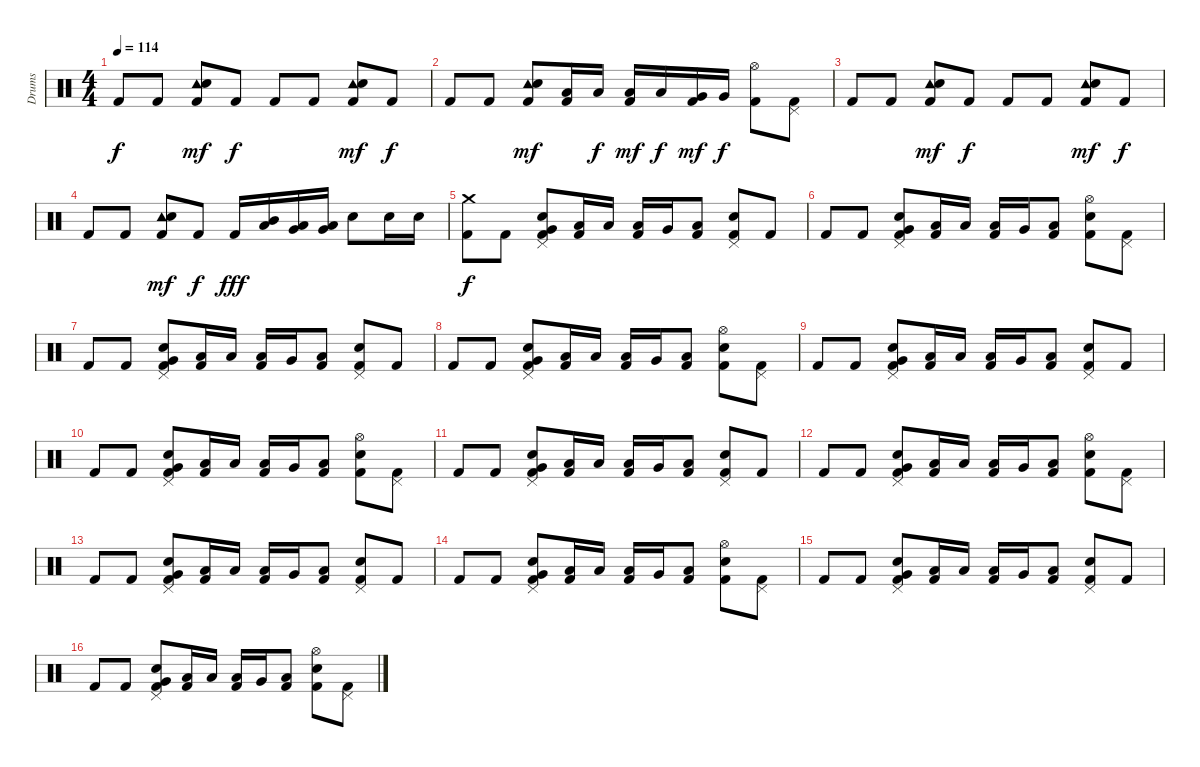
\track ("Drums" "Drums") {instrument percussion}
\staff {score}
\articulation defaults
\ts (4 4)
\tempo 114
\clef neutral
\ks c "Kick (hit) 2".8{dy f} "Kick (hit) 2".8
("Tambourine (hit)" "Electric Snare (hit)" "Kick (hit) 2").8{dy mf} "Kick (hit) 2".8{dy f} "Kick (hit) 2".8 "Kick (hit) 2".8 ("Tambourine (hit)" "Electric Snare (hit)" "Kick (hit) 2").8{dy mf} "Kick (hit) 2".8{dy f} |
"Kick (hit) 2".8 "Kick (hit) 2".8 ("Tambourine (hit)" "Electric Snare (hit)" "Kick (hit) 2").8{dy mf} ("Low Tom (hit)" "Kick (hit) 2").16 "Low Tom (hit)".16{dy f} ("Low Tom (hit)" "Kick (hit) 2").16{dy mf} "Low Tom (hit)".16{dy f} ("Very Low Tom (hit)" "Kick (hit) 2").16{dy mf} "Very Low Tom (hit)".16{dy f} ("Hi-Hat (open)" "Kick (hit) 2").8 ("Pedal Hi-Hat (hit)" "Kick (hit) 2").8 |
"Kick (hit) 2".8 "Kick (hit) 2".8 ("Tambourine (hit)" "Electric Snare (hit)" "Kick (hit) 2").8{dy mf} "Kick (hit) 2".8{dy f} "Kick (hit) 2".8 "Kick (hit) 2".8 ("Tambourine (hit)" "Electric Snare (hit)" "Kick (hit) 2").8{dy mf} "Kick (hit) 2".8{dy f} |
"Kick (hit) 2".8 "Kick (hit) 2".8 ("Tambourine (hit)" "Electric Snare (hit)" "Kick (hit) 2").8{dy mf} "Kick (hit) 2".8{dy f} "Kick (hit) 2".16{dy fff} ("Mid Tom (hit)" "Low Tom (hit)").16 ("Low Tom (hit)" "Very Low Tom (hit)").16 ("Very Low Tom (hit)" "Low Floor Tom (hit)").16 "Electric Snare (hit)".8 "Electric Snare (hit)".16 "Electric Snare (hit)".16 |
("Crash medium (hit)" "Kick (hit) 2").8{dy f} "Kick (hit) 2".8 ("Pedal Hi-Hat (hit)" "Electric Snare (hit)" "Very Low Tom (hit)" "Kick (hit) 2").8 ("Low Tom (hit)" "Kick (hit) 2").16 "Low Tom (hit)".16 ("Low Tom (hit)" "Kick (hit) 2").16 "Very Low Tom (hit)".16 ("Low Floor Tom (hit)" "Kick (hit) 2").8 ("Pedal Hi-Hat (hit)" "Electric Snare (hit)" "Kick (hit) 2").8 "Kick (hit) 2".8 |
"Kick (hit) 2".8 "Kick (hit) 2".8 ("Pedal Hi-Hat (hit)" "Electric Snare (hit)" "Very Low Tom (hit)" "Kick (hit) 2").8 ("Low Tom (hit)" "Kick (hit) 2").16 "Low Tom (hit)".16 ("Low Tom (hit)" "Kick (hit) 2").16 "Very Low Tom (hit)".16 ("Low Floor Tom (hit)" "Kick (hit) 2").8 ("Hi-Hat (open)" "Electric Snare (hit)" "Kick (hit) 2").8 ("Pedal Hi-Hat (hit)" "Kick (hit) 2").8 |
"Kick (hit) 2".8 "Kick (hit) 2".8 ("Pedal Hi-Hat (hit)" "Electric Snare (hit)" "Very Low Tom (hit)" "Kick (hit) 2").8 ("Low Tom (hit)" "Kick (hit) 2").16 "Low Tom (hit)".16 ("Low Tom (hit)" "Kick (hit) 2").16 "Very Low Tom (hit)".16 ("Low Floor Tom (hit)" "Kick (hit) 2").8 ("Pedal Hi-Hat (hit)" "Electric Snare (hit)" "Kick (hit) 2").8 "Kick (hit) 2".8 |
"Kick (hit) 2".8 "Kick (hit) 2".8 ("Pedal Hi-Hat (hit)" "Electric Snare (hit)" "Very Low Tom (hit)" "Kick (hit) 2").8 ("Low Tom (hit)" "Kick (hit) 2").16 "Low Tom (hit)".16 ("Low Tom (hit)" "Kick (hit) 2").16 "Very Low Tom (hit)".16 ("Low Floor Tom (hit)" "Kick (hit) 2").8 ("Hi-Hat (open)" "Electric Snare (hit)" "Kick (hit) 2").8 ("Pedal Hi-Hat (hit)" "Kick (hit) 2").8 |
"Kick (hit) 2".8 "Kick (hit) 2".8 ("Pedal Hi-Hat (hit)" "Electric Snare (hit)" "Very Low Tom (hit)" "Kick (hit) 2").8 ("Low Tom (hit)" "Kick (hit) 2").16 "Low Tom (hit)".16 ("Low Tom (hit)" "Kick (hit) 2").16 "Very Low Tom (hit)".16 ("Low Floor Tom (hit)" "Kick (hit) 2").8 ("Pedal Hi-Hat (hit)" "Electric Snare (hit)" "Kick (hit) 2").8 "Kick (hit) 2".8 |
"Kick (hit) 2".8 "Kick (hit) 2".8 ("Pedal Hi-Hat (hit)" "Electric Snare (hit)" "Very Low Tom (hit)" "Kick (hit) 2").8 ("Low Tom (hit)" "Kick (hit) 2").16 "Low Tom (hit)".16 ("Low Tom (hit)" "Kick (hit) 2").16 "Very Low Tom (hit)".16 ("Low Floor Tom (hit)" "Kick (hit) 2").8 ("Hi-Hat (open)" "Electric Snare (hit)" "Kick (hit) 2").8 ("Pedal Hi-Hat (hit)" "Kick (hit) 2").8 |
"Kick (hit) 2".8 "Kick (hit) 2".8 ("Pedal Hi-Hat (hit)" "Electric Snare (hit)" "Very Low Tom (hit)" "Kick (hit) 2").8 ("Low Tom (hit)" "Kick (hit) 2").16 "Low Tom (hit)".16 ("Low Tom (hit)" "Kick (hit) 2").16 "Very Low Tom (hit)".16 ("Low Floor Tom (hit)" "Kick (hit) 2").8 ("Pedal Hi-Hat (hit)" "Electric Snare (hit)" "Kick (hit) 2").8 "Kick (hit) 2".8 |
"Kick (hit) 2".8 "Kick (hit) 2".8 ("Pedal Hi-Hat (hit)" "Electric Snare (hit)" "Very Low Tom (hit)" "Kick (hit) 2").8 ("Low Tom (hit)" "Kick (hit) 2").16 "Low Tom (hit)".16 ("Low Tom (hit)" "Kick (hit) 2").16 "Very Low Tom (hit)".16 ("Low Floor Tom (hit)" "Kick (hit) 2").8 ("Hi-Hat (open)" "Electric Snare (hit)" "Kick (hit) 2").8 ("Pedal Hi-Hat (hit)" "Kick (hit) 2").8 |
"Kick (hit) 2".8 "Kick (hit) 2".8 ("Pedal Hi-Hat (hit)" "Electric Snare (hit)" "Very Low Tom (hit)" "Kick (hit) 2").8 ("Low Tom (hit)" "Kick (hit) 2").16 "Low Tom (hit)".16 ("Low Tom (hit)" "Kick (hit) 2").16 "Very Low Tom (hit)".16 ("Low Floor Tom (hit)" "Kick (hit) 2").8 ("Pedal Hi-Hat (hit)" "Electric Snare (hit)" "Kick (hit) 2").8 "Kick (hit) 2".8 |
"Kick (hit) 2".8 "Kick (hit) 2".8 ("Pedal Hi-Hat (hit)" "Electric Snare (hit)" "Very Low Tom (hit)" "Kick (hit) 2").8 ("Low Tom (hit)" "Kick (hit) 2").16 "Low Tom (hit)".16 ("Low Tom (hit)" "Kick (hit) 2").16 "Very Low Tom (hit)".16 ("Low Floor Tom (hit)" "Kick (hit) 2").8 ("Hi-Hat (open)" "Electric Snare (hit)" "Kick (hit) 2").8 ("Pedal Hi-Hat (hit)" "Kick (hit) 2").8 |
"Kick (hit) 2".8 "Kick (hit) 2".8 ("Pedal Hi-Hat (hit)" "Electric Snare (hit)" "Very Low Tom (hit)" "Kick (hit) 2").8 ("Low Tom (hit)" "Kick (hit) 2").16 "Low Tom (hit)".16 ("Low Tom (hit)" "Kick (hit) 2").16 "Very Low Tom (hit)".16 ("Low Floor Tom (hit)" "Kick (hit) 2").8 ("Pedal Hi-Hat (hit)" "Electric Snare (hit)" "Kick (hit) 2").8 "Kick (hit) 2".8 |
"Kick (hit) 2".8 "Kick (hit) 2".8 ("Pedal Hi-Hat (hit)" "Electric Snare (hit)" "Very Low Tom (hit)" "Kick (hit) 2").8 ("Low Tom (hit)" "Kick (hit) 2").16 "Low Tom (hit)".16 ("Low Tom (hit)" "Kick (hit) 2").16 "Very Low Tom (hit)".16 ("Low Floor Tom (hit)" "Kick (hit) 2").8 ("Hi-Hat (open)" "Electric Snare (hit)" "Kick (hit) 2").8 ("Pedal Hi-Hat (hit)" "Kick (hit) 2").8
